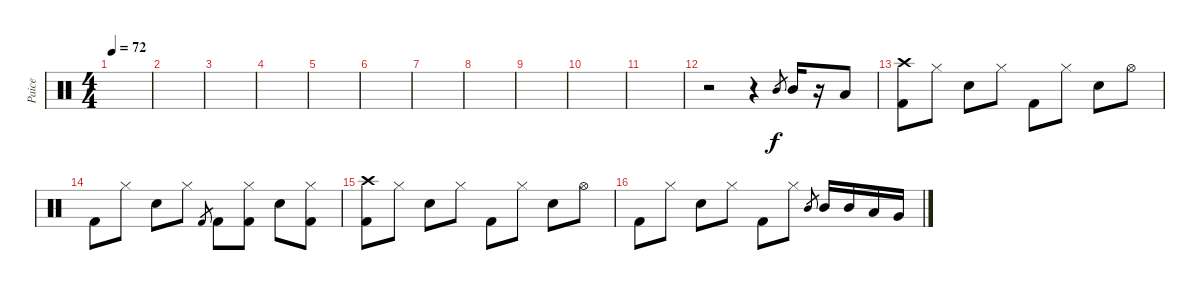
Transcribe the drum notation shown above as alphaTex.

\track ("Paice" "Paice") {instrument percussion}
\staff {score}
\articulation defaults
\ts (4 4)
\tempo 72
\clef neutral
\ks c
|
|
|
|
|
|
|
|
|
|
|
r.2 r.4 "Mid Tom (hit)".8{gr} "Mid Tom (hit)".16 r.16 "Low Tom (hit)".8 |
("Crash high (hit)" "Kick (hit) 2").8 "Hi-Hat (closed)".8 "Electric Snare (hit)".8 "Hi-Hat (closed)".8 "Kick (hit) 2".8 "Hi-Hat (closed)".8 "Electric Snare (hit)".8 "Hi-Hat (open)".8 |
"Kick (hit) 2".8 "Hi-Hat (closed)".8 "Electric Snare (hit)".8 "Hi-Hat (closed)".8 "Kick (hit) 2".8{gr} "Kick (hit) 2".8 ("Hi-Hat (closed)" "Kick (hit) 2").8 "Electric Snare (hit)".8 ("Hi-Hat (closed)" "Kick (hit) 2").8 |
("Crash high (hit)" "Kick (hit) 2").8 "Hi-Hat (closed)".8 "Electric Snare (hit)".8 "Hi-Hat (closed)".8 "Kick (hit) 2".8 "Hi-Hat (closed)".8 "Electric Snare (hit)".8 "Hi-Hat (open)".8 |
"Kick (hit) 2".8 "Hi-Hat (closed)".8 "Electric Snare (hit)".8 "Hi-Hat (closed)".8 "Kick (hit) 2".8 "Hi-Hat (closed)".8 "Mid Tom (hit)".8{gr} "Mid Tom (hit)".16 "Mid Tom (hit)".16 "Low Tom (hit)".16 "Very Low Tom (hit)".16
